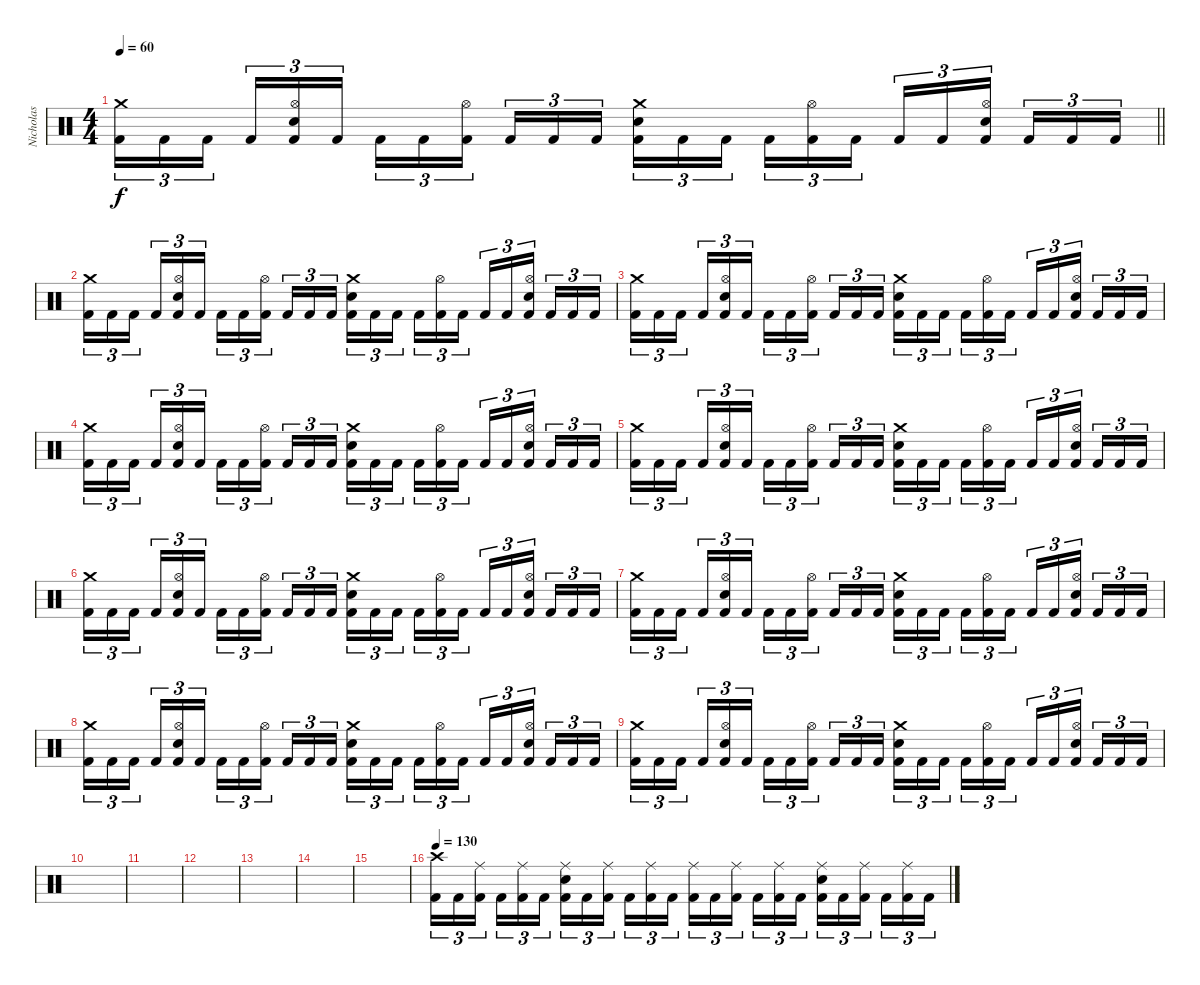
\track ("Nicholas" "Nicholas") {instrument percussion}
\staff {score}
\articulation defaults
\ts (4 4)
\tempo 60
\clef neutral
\barLineRight lightlight
\ks c
("Crash medium (hit)" "Kick (hit) 2").16{tu (3 2) dy f} "Kick (hit) 2".16{tu (3 2)} "Kick (hit) 2".16{tu (3 2) beam splitsecondary} "Kick (hit) 2".16{tu (3 2)} ("Hi-Hat (open)" "Snare (hit) 2" "Kick (hit) 2").16{tu (3 2)} "Kick (hit) 2".16{tu (3 2)} "Kick (hit) 2".16{tu (3 2)} "Kick (hit) 2".16{tu (3 2)} ("Hi-Hat (open)" "Kick (hit) 2").16{tu (3 2) beam splitsecondary} "Kick (hit) 2".16{tu (3 2)} "Kick (hit) 2".16{tu (3 2)} "Kick (hit) 2".16{tu (3 2)} ("Crash medium (hit)" "Snare (hit) 2" "Kick (hit) 2").16{tu (3 2)} "Kick (hit) 2".16{tu (3 2)} "Kick (hit) 2".16{tu (3 2) beam splitsecondary} "Kick (hit) 2".16{tu (3 2)} ("Hi-Hat (open)" "Kick (hit) 2").16{tu (3 2)} "Kick (hit) 2".16{tu (3 2)} "Kick (hit) 2".16{tu (3 2)} "Kick (hit) 2".16{tu (3 2)} ("Hi-Hat (open)" "Snare (hit) 2" "Kick (hit) 2").16{tu (3 2) beam splitsecondary} "Kick (hit) 2".16{tu (3 2)} "Kick (hit) 2".16{tu (3 2)} "Kick (hit) 2".16{tu (3 2)} |
\section ("" "")
("Crash medium (hit)" "Kick (hit) 2").16{tu (3 2)} "Kick (hit) 2".16{tu (3 2)} "Kick (hit) 2".16{tu (3 2) beam splitsecondary} "Kick (hit) 2".16{tu (3 2)} ("Hi-Hat (open)" "Snare (hit) 2" "Kick (hit) 2").16{tu (3 2)} "Kick (hit) 2".16{tu (3 2)} "Kick (hit) 2".16{tu (3 2)} "Kick (hit) 2".16{tu (3 2)} ("Hi-Hat (open)" "Kick (hit) 2").16{tu (3 2) beam splitsecondary} "Kick (hit) 2".16{tu (3 2)} "Kick (hit) 2".16{tu (3 2)} "Kick (hit) 2".16{tu (3 2)} ("Crash medium (hit)" "Snare (hit) 2" "Kick (hit) 2").16{tu (3 2)} "Kick (hit) 2".16{tu (3 2)} "Kick (hit) 2".16{tu (3 2) beam splitsecondary} "Kick (hit) 2".16{tu (3 2)} ("Hi-Hat (open)" "Kick (hit) 2").16{tu (3 2)} "Kick (hit) 2".16{tu (3 2)} "Kick (hit) 2".16{tu (3 2)} "Kick (hit) 2".16{tu (3 2)} ("Hi-Hat (open)" "Snare (hit) 2" "Kick (hit) 2").16{tu (3 2) beam splitsecondary} "Kick (hit) 2".16{tu (3 2)} "Kick (hit) 2".16{tu (3 2)} "Kick (hit) 2".16{tu (3 2)} |
("Crash medium (hit)" "Kick (hit) 2").16{tu (3 2)} "Kick (hit) 2".16{tu (3 2)} "Kick (hit) 2".16{tu (3 2) beam splitsecondary} "Kick (hit) 2".16{tu (3 2)} ("Hi-Hat (open)" "Snare (hit) 2" "Kick (hit) 2").16{tu (3 2)} "Kick (hit) 2".16{tu (3 2)} "Kick (hit) 2".16{tu (3 2)} "Kick (hit) 2".16{tu (3 2)} ("Hi-Hat (open)" "Kick (hit) 2").16{tu (3 2) beam splitsecondary} "Kick (hit) 2".16{tu (3 2)} "Kick (hit) 2".16{tu (3 2)} "Kick (hit) 2".16{tu (3 2)} ("Crash medium (hit)" "Snare (hit) 2" "Kick (hit) 2").16{tu (3 2)} "Kick (hit) 2".16{tu (3 2)} "Kick (hit) 2".16{tu (3 2) beam splitsecondary} "Kick (hit) 2".16{tu (3 2)} ("Hi-Hat (open)" "Kick (hit) 2").16{tu (3 2)} "Kick (hit) 2".16{tu (3 2)} "Kick (hit) 2".16{tu (3 2)} "Kick (hit) 2".16{tu (3 2)} ("Hi-Hat (open)" "Snare (hit) 2" "Kick (hit) 2").16{tu (3 2) beam splitsecondary} "Kick (hit) 2".16{tu (3 2)} "Kick (hit) 2".16{tu (3 2)} "Kick (hit) 2".16{tu (3 2)} |
("Crash medium (hit)" "Kick (hit) 2").16{tu (3 2)} "Kick (hit) 2".16{tu (3 2)} "Kick (hit) 2".16{tu (3 2) beam splitsecondary} "Kick (hit) 2".16{tu (3 2)} ("Hi-Hat (open)" "Snare (hit) 2" "Kick (hit) 2").16{tu (3 2)} "Kick (hit) 2".16{tu (3 2)} "Kick (hit) 2".16{tu (3 2)} "Kick (hit) 2".16{tu (3 2)} ("Hi-Hat (open)" "Kick (hit) 2").16{tu (3 2) beam splitsecondary} "Kick (hit) 2".16{tu (3 2)} "Kick (hit) 2".16{tu (3 2)} "Kick (hit) 2".16{tu (3 2)} ("Crash medium (hit)" "Snare (hit) 2" "Kick (hit) 2").16{tu (3 2)} "Kick (hit) 2".16{tu (3 2)} "Kick (hit) 2".16{tu (3 2) beam splitsecondary} "Kick (hit) 2".16{tu (3 2)} ("Hi-Hat (open)" "Kick (hit) 2").16{tu (3 2)} "Kick (hit) 2".16{tu (3 2)} "Kick (hit) 2".16{tu (3 2)} "Kick (hit) 2".16{tu (3 2)} ("Hi-Hat (open)" "Snare (hit) 2" "Kick (hit) 2").16{tu (3 2) beam splitsecondary} "Kick (hit) 2".16{tu (3 2)} "Kick (hit) 2".16{tu (3 2)} "Kick (hit) 2".16{tu (3 2)} |
("Crash medium (hit)" "Kick (hit) 2").16{tu (3 2)} "Kick (hit) 2".16{tu (3 2)} "Kick (hit) 2".16{tu (3 2) beam splitsecondary} "Kick (hit) 2".16{tu (3 2)} ("Hi-Hat (open)" "Snare (hit) 2" "Kick (hit) 2").16{tu (3 2)} "Kick (hit) 2".16{tu (3 2)} "Kick (hit) 2".16{tu (3 2)} "Kick (hit) 2".16{tu (3 2)} ("Hi-Hat (open)" "Kick (hit) 2").16{tu (3 2) beam splitsecondary} "Kick (hit) 2".16{tu (3 2)} "Kick (hit) 2".16{tu (3 2)} "Kick (hit) 2".16{tu (3 2)} ("Crash medium (hit)" "Snare (hit) 2" "Kick (hit) 2").16{tu (3 2)} "Kick (hit) 2".16{tu (3 2)} "Kick (hit) 2".16{tu (3 2) beam splitsecondary} "Kick (hit) 2".16{tu (3 2)} ("Hi-Hat (open)" "Kick (hit) 2").16{tu (3 2)} "Kick (hit) 2".16{tu (3 2)} "Kick (hit) 2".16{tu (3 2)} "Kick (hit) 2".16{tu (3 2)} ("Hi-Hat (open)" "Snare (hit) 2" "Kick (hit) 2").16{tu (3 2) beam splitsecondary} "Kick (hit) 2".16{tu (3 2)} "Kick (hit) 2".16{tu (3 2)} "Kick (hit) 2".16{tu (3 2)} |
("Crash medium (hit)" "Kick (hit) 2").16{tu (3 2)} "Kick (hit) 2".16{tu (3 2)} "Kick (hit) 2".16{tu (3 2) beam splitsecondary} "Kick (hit) 2".16{tu (3 2)} ("Hi-Hat (open)" "Snare (hit) 2" "Kick (hit) 2").16{tu (3 2)} "Kick (hit) 2".16{tu (3 2)} "Kick (hit) 2".16{tu (3 2)} "Kick (hit) 2".16{tu (3 2)} ("Hi-Hat (open)" "Kick (hit) 2").16{tu (3 2) beam splitsecondary} "Kick (hit) 2".16{tu (3 2)} "Kick (hit) 2".16{tu (3 2)} "Kick (hit) 2".16{tu (3 2)} ("Crash medium (hit)" "Snare (hit) 2" "Kick (hit) 2").16{tu (3 2)} "Kick (hit) 2".16{tu (3 2)} "Kick (hit) 2".16{tu (3 2) beam splitsecondary} "Kick (hit) 2".16{tu (3 2)} ("Hi-Hat (open)" "Kick (hit) 2").16{tu (3 2)} "Kick (hit) 2".16{tu (3 2)} "Kick (hit) 2".16{tu (3 2)} "Kick (hit) 2".16{tu (3 2)} ("Hi-Hat (open)" "Snare (hit) 2" "Kick (hit) 2").16{tu (3 2) beam splitsecondary} "Kick (hit) 2".16{tu (3 2)} "Kick (hit) 2".16{tu (3 2)} "Kick (hit) 2".16{tu (3 2)} |
("Crash medium (hit)" "Kick (hit) 2").16{tu (3 2)} "Kick (hit) 2".16{tu (3 2)} "Kick (hit) 2".16{tu (3 2) beam splitsecondary} "Kick (hit) 2".16{tu (3 2)} ("Hi-Hat (open)" "Snare (hit) 2" "Kick (hit) 2").16{tu (3 2)} "Kick (hit) 2".16{tu (3 2)} "Kick (hit) 2".16{tu (3 2)} "Kick (hit) 2".16{tu (3 2)} ("Hi-Hat (open)" "Kick (hit) 2").16{tu (3 2) beam splitsecondary} "Kick (hit) 2".16{tu (3 2)} "Kick (hit) 2".16{tu (3 2)} "Kick (hit) 2".16{tu (3 2)} ("Crash medium (hit)" "Snare (hit) 2" "Kick (hit) 2").16{tu (3 2)} "Kick (hit) 2".16{tu (3 2)} "Kick (hit) 2".16{tu (3 2) beam splitsecondary} "Kick (hit) 2".16{tu (3 2)} ("Hi-Hat (open)" "Kick (hit) 2").16{tu (3 2)} "Kick (hit) 2".16{tu (3 2)} "Kick (hit) 2".16{tu (3 2)} "Kick (hit) 2".16{tu (3 2)} ("Hi-Hat (open)" "Snare (hit) 2" "Kick (hit) 2").16{tu (3 2) beam splitsecondary} "Kick (hit) 2".16{tu (3 2)} "Kick (hit) 2".16{tu (3 2)} "Kick (hit) 2".16{tu (3 2)} |
("Crash medium (hit)" "Kick (hit) 2").16{tu (3 2)} "Kick (hit) 2".16{tu (3 2)} "Kick (hit) 2".16{tu (3 2) beam splitsecondary} "Kick (hit) 2".16{tu (3 2)} ("Hi-Hat (open)" "Snare (hit) 2" "Kick (hit) 2").16{tu (3 2)} "Kick (hit) 2".16{tu (3 2)} "Kick (hit) 2".16{tu (3 2)} "Kick (hit) 2".16{tu (3 2)} ("Hi-Hat (open)" "Kick (hit) 2").16{tu (3 2) beam splitsecondary} "Kick (hit) 2".16{tu (3 2)} "Kick (hit) 2".16{tu (3 2)} "Kick (hit) 2".16{tu (3 2)} ("Crash medium (hit)" "Snare (hit) 2" "Kick (hit) 2").16{tu (3 2)} "Kick (hit) 2".16{tu (3 2)} "Kick (hit) 2".16{tu (3 2) beam splitsecondary} "Kick (hit) 2".16{tu (3 2)} ("Hi-Hat (open)" "Kick (hit) 2").16{tu (3 2)} "Kick (hit) 2".16{tu (3 2)} "Kick (hit) 2".16{tu (3 2)} "Kick (hit) 2".16{tu (3 2)} ("Hi-Hat (open)" "Snare (hit) 2" "Kick (hit) 2").16{tu (3 2) beam splitsecondary} "Kick (hit) 2".16{tu (3 2)} "Kick (hit) 2".16{tu (3 2)} "Kick (hit) 2".16{tu (3 2)} |
("Crash medium (hit)" "Kick (hit) 2").16{tu (3 2)} "Kick (hit) 2".16{tu (3 2)} "Kick (hit) 2".16{tu (3 2) beam splitsecondary} "Kick (hit) 2".16{tu (3 2)} ("Hi-Hat (open)" "Snare (hit) 2" "Kick (hit) 2").16{tu (3 2)} "Kick (hit) 2".16{tu (3 2)} "Kick (hit) 2".16{tu (3 2)} "Kick (hit) 2".16{tu (3 2)} ("Hi-Hat (open)" "Kick (hit) 2").16{tu (3 2) beam splitsecondary} "Kick (hit) 2".16{tu (3 2)} "Kick (hit) 2".16{tu (3 2)} "Kick (hit) 2".16{tu (3 2)} ("Crash medium (hit)" "Snare (hit) 2" "Kick (hit) 2").16{tu (3 2)} "Kick (hit) 2".16{tu (3 2)} "Kick (hit) 2".16{tu (3 2) beam splitsecondary} "Kick (hit) 2".16{tu (3 2)} ("Hi-Hat (open)" "Kick (hit) 2").16{tu (3 2)} "Kick (hit) 2".16{tu (3 2)} "Kick (hit) 2".16{tu (3 2)} "Kick (hit) 2".16{tu (3 2)} ("Hi-Hat (open)" "Snare (hit) 2" "Kick (hit) 2").16{tu (3 2) beam splitsecondary} "Kick (hit) 2".16{tu (3 2)} "Kick (hit) 2".16{tu (3 2)} "Kick (hit) 2".16{tu (3 2)} |
|
|
|
|
|
|
\tempo 130
("Crash high (hit)" "Kick (hit) 2").16{tu (3 2)} "Kick (hit) 2".16{tu (3 2)} ("Ride (middle)" "Kick (hit) 2").16{tu (3 2) beam splitsecondary} "Kick (hit) 2".16{tu (3 2)} ("Ride (middle)" "Kick (hit) 2").16{tu (3 2)} "Kick (hit) 2".16{tu (3 2)} ("Ride (middle)" "Snare (hit) 2" "Kick (hit) 2").16{tu (3 2)} "Kick (hit) 2".16{tu (3 2)} ("Ride (middle)" "Kick (hit) 2").16{tu (3 2) beam splitsecondary} "Kick (hit) 2".16{tu (3 2)} ("Ride (middle)" "Kick (hit) 2").16{tu (3 2)} "Kick (hit) 2".16{tu (3 2)} ("Ride (middle)" "Kick (hit) 2").16{tu (3 2)} "Kick (hit) 2".16{tu (3 2)} ("Ride (middle)" "Kick (hit) 2").16{tu (3 2) beam splitsecondary} "Kick (hit) 2".16{tu (3 2)} ("Ride (middle)" "Kick (hit) 2").16{tu (3 2)} "Kick (hit) 2".16{tu (3 2)} ("Ride (middle)" "Snare (hit) 2" "Kick (hit) 2").16{tu (3 2)} "Kick (hit) 2".16{tu (3 2)} ("Ride (middle)" "Kick (hit) 2").16{tu (3 2) beam splitsecondary} "Kick (hit) 2".16{tu (3 2)} ("Ride (middle)" "Kick (hit) 2").16{tu (3 2)} "Kick (hit) 2".16{tu (3 2)}
